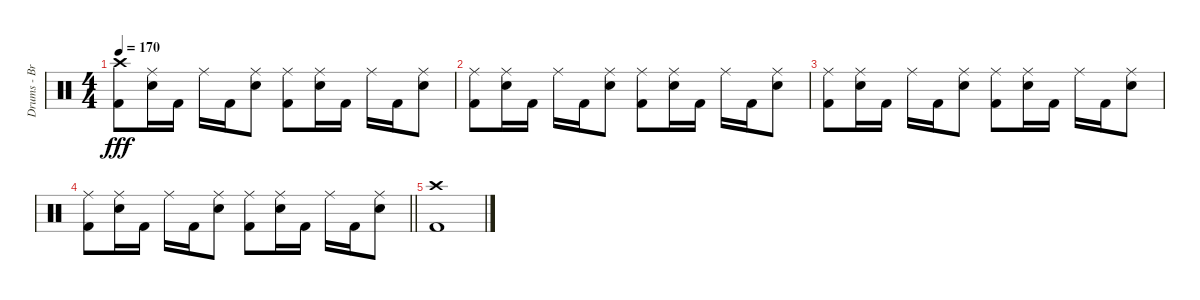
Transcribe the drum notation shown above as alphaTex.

\track ("Drums - Brandon" "Drums - Br") {instrument percussion}
\staff {score}
\articulation defaults
\ts (4 4)
\tempo 170
\clef neutral
\ks c
("Crash high (hit)" "Kick (hit) 2").8{dy fff} ("Ride (middle)" "Electric Snare (hit)").16 "Kick (hit) 2".16 "Ride (middle)".16 "Kick (hit) 2".16 ("Ride (middle)" "Electric Snare (hit)").8 ("Ride (middle)" "Kick (hit) 2").8 ("Ride (middle)" "Electric Snare (hit)").16 "Kick (hit) 2".16 "Ride (middle)".16 "Kick (hit) 2".16 ("Ride (middle)" "Electric Snare (hit)").8 |
("Ride (middle)" "Kick (hit) 2").8 ("Ride (middle)" "Electric Snare (hit)").16 "Kick (hit) 2".16 "Ride (middle)".16 "Kick (hit) 2".16 ("Ride (middle)" "Electric Snare (hit)").8 ("Ride (middle)" "Kick (hit) 2").8 ("Ride (middle)" "Electric Snare (hit)").16 "Kick (hit) 2".16 "Ride (middle)".16 "Kick (hit) 2".16 ("Ride (middle)" "Electric Snare (hit)").8 |
("Ride (middle)" "Kick (hit) 2").8 ("Ride (middle)" "Electric Snare (hit)").16 "Kick (hit) 2".16 "Ride (middle)".16 "Kick (hit) 2".16 ("Ride (middle)" "Electric Snare (hit)").8 ("Ride (middle)" "Kick (hit) 2").8 ("Ride (middle)" "Electric Snare (hit)").16 "Kick (hit) 2".16 "Ride (middle)".16 "Kick (hit) 2".16 ("Ride (middle)" "Electric Snare (hit)").8 |
\barLineRight lightlight
("Ride (middle)" "Kick (hit) 2").8 ("Ride (middle)" "Electric Snare (hit)").16 "Kick (hit) 2".16 "Ride (middle)".16 "Kick (hit) 2".16 ("Ride (middle)" "Electric Snare (hit)").8 ("Ride (middle)" "Kick (hit) 2").8 ("Ride (middle)" "Electric Snare (hit)").16 "Kick (hit) 2".16 "Ride (middle)".16 "Kick (hit) 2".16 ("Ride (middle)" "Electric Snare (hit)").8 |
("Crash high (hit)" "Kick (hit) 2").1
